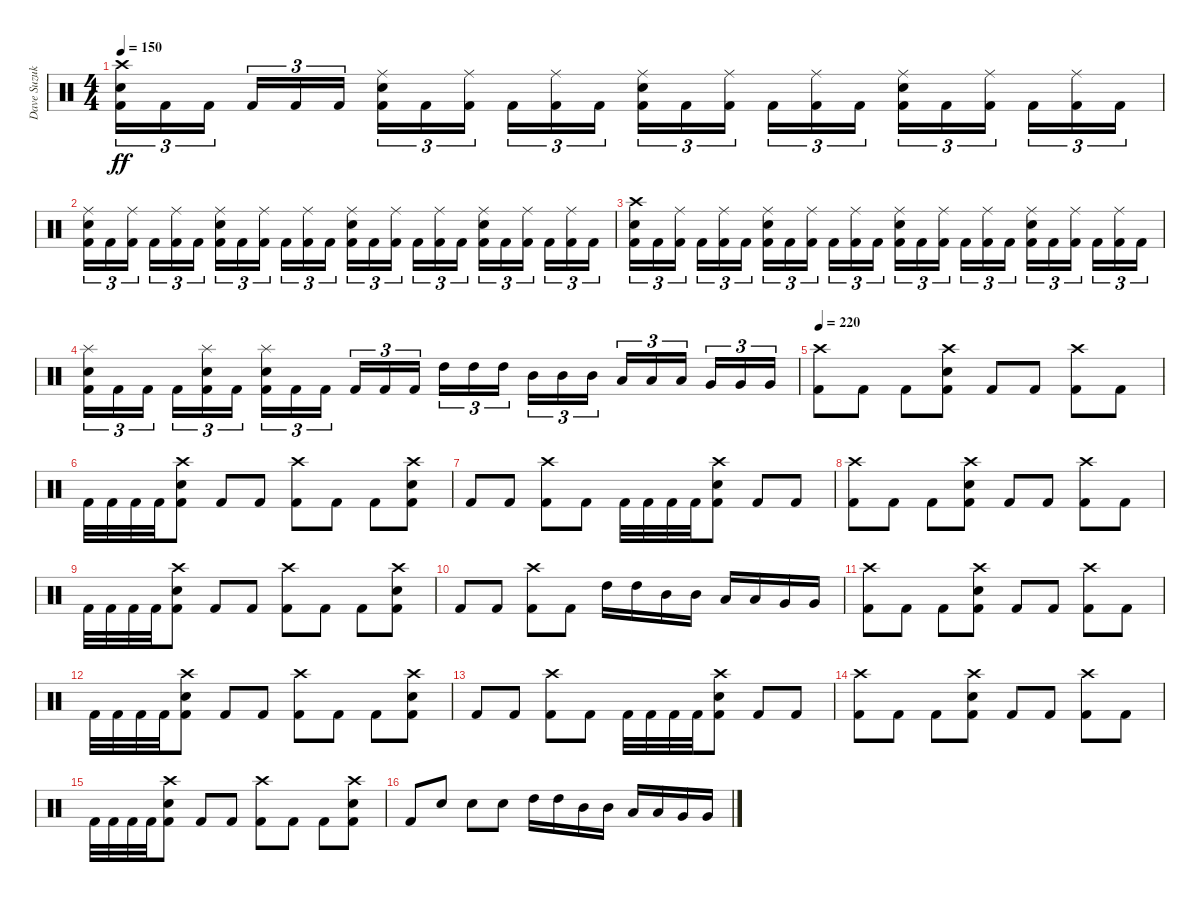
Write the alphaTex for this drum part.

\track ("Dave Suzuki - Drums" "Dave Suzuk") {instrument percussion}
\staff {score}
\articulation defaults
\ts (4 4)
\tempo 150
\clef neutral
\ks c
("Crash high (hit)" "Electric Snare (hit)" "Kick (hit) 2").16{tu (3 2) dy ff} "Kick (hit) 2".16{tu (3 2)} "Kick (hit) 2".16{tu (3 2) beam splitsecondary} "Kick (hit) 2".16{tu (3 2)} "Kick (hit) 2".16{tu (3 2)} "Kick (hit) 2".16{tu (3 2)} ("Ride (middle)" "Electric Snare (hit)" "Kick (hit) 2").16{tu (3 2)} "Kick (hit) 2".16{tu (3 2)} ("Ride (middle)" "Kick (hit) 2").16{tu (3 2) beam splitsecondary} "Kick (hit) 2".16{tu (3 2)} ("Ride (middle)" "Kick (hit) 2").16{tu (3 2)} "Kick (hit) 2".16{tu (3 2)} ("Ride (middle)" "Electric Snare (hit)" "Kick (hit) 2").16{tu (3 2)} "Kick (hit) 2".16{tu (3 2)} ("Ride (middle)" "Kick (hit) 2").16{tu (3 2) beam splitsecondary} "Kick (hit) 2".16{tu (3 2)} ("Ride (middle)" "Kick (hit) 2").16{tu (3 2)} "Kick (hit) 2".16{tu (3 2)} ("Ride (middle)" "Electric Snare (hit)" "Kick (hit) 2").16{tu (3 2)} "Kick (hit) 2".16{tu (3 2)} ("Ride (middle)" "Kick (hit) 2").16{tu (3 2) beam splitsecondary} "Kick (hit) 2".16{tu (3 2)} ("Ride (middle)" "Kick (hit) 2").16{tu (3 2)} "Kick (hit) 2".16{tu (3 2)} |
("Ride (middle)" "Electric Snare (hit)" "Kick (hit) 2").16{tu (3 2)} "Kick (hit) 2".16{tu (3 2)} ("Ride (middle)" "Kick (hit) 2").16{tu (3 2) beam splitsecondary} "Kick (hit) 2".16{tu (3 2)} ("Ride (middle)" "Kick (hit) 2").16{tu (3 2)} "Kick (hit) 2".16{tu (3 2)} ("Ride (middle)" "Electric Snare (hit)" "Kick (hit) 2").16{tu (3 2)} "Kick (hit) 2".16{tu (3 2)} ("Ride (middle)" "Kick (hit) 2").16{tu (3 2) beam splitsecondary} "Kick (hit) 2".16{tu (3 2)} ("Ride (middle)" "Kick (hit) 2").16{tu (3 2)} "Kick (hit) 2".16{tu (3 2)} ("Ride (middle)" "Electric Snare (hit)" "Kick (hit) 2").16{tu (3 2)} "Kick (hit) 2".16{tu (3 2)} ("Ride (middle)" "Kick (hit) 2").16{tu (3 2) beam splitsecondary} "Kick (hit) 2".16{tu (3 2)} ("Ride (middle)" "Kick (hit) 2").16{tu (3 2)} "Kick (hit) 2".16{tu (3 2)} ("Ride (middle)" "Electric Snare (hit)" "Kick (hit) 2").16{tu (3 2)} "Kick (hit) 2".16{tu (3 2)} ("Ride (middle)" "Kick (hit) 2").16{tu (3 2) beam splitsecondary} "Kick (hit) 2".16{tu (3 2)} ("Ride (middle)" "Kick (hit) 2").16{tu (3 2)} "Kick (hit) 2".16{tu (3 2)} |
("Crash high (hit)" "Electric Snare (hit)" "Kick (hit) 2").16{tu (3 2)} "Kick (hit) 2".16{tu (3 2)} ("Ride (middle)" "Kick (hit) 2").16{tu (3 2) beam splitsecondary} "Kick (hit) 2".16{tu (3 2)} ("Ride (middle)" "Kick (hit) 2").16{tu (3 2)} "Kick (hit) 2".16{tu (3 2)} ("Ride (middle)" "Electric Snare (hit)" "Kick (hit) 2").16{tu (3 2)} "Kick (hit) 2".16{tu (3 2)} ("Ride (middle)" "Kick (hit) 2").16{tu (3 2) beam splitsecondary} "Kick (hit) 2".16{tu (3 2)} ("Ride (middle)" "Kick (hit) 2").16{tu (3 2)} "Kick (hit) 2".16{tu (3 2)} ("Ride (middle)" "Electric Snare (hit)" "Kick (hit) 2").16{tu (3 2)} "Kick (hit) 2".16{tu (3 2)} ("Ride (middle)" "Kick (hit) 2").16{tu (3 2) beam splitsecondary} "Kick (hit) 2".16{tu (3 2)} ("Ride (middle)" "Kick (hit) 2").16{tu (3 2)} "Kick (hit) 2".16{tu (3 2)} ("Ride (middle)" "Electric Snare (hit)" "Kick (hit) 2").16{tu (3 2)} "Kick (hit) 2".16{tu (3 2)} ("Ride (middle)" "Kick (hit) 2").16{tu (3 2) beam splitsecondary} "Kick (hit) 2".16{tu (3 2)} ("Ride (middle)" "Kick (hit) 2").16{tu (3 2)} "Kick (hit) 2".16{tu (3 2)} |
("Splash (hit)" "Electric Snare (hit)" "Kick (hit) 2").16{tu (3 2)} "Kick (hit) 2".16{tu (3 2)} "Kick (hit) 2".16{tu (3 2) beam splitsecondary} "Kick (hit) 2".16{tu (3 2)} ("Splash (hit)" "Electric Snare (hit)" "Kick (hit) 2").16{tu (3 2)} "Kick (hit) 2".16{tu (3 2)} ("Splash (hit)" "Electric Snare (hit)" "Kick (hit) 2").16{tu (3 2)} "Kick (hit) 2".16{tu (3 2)} "Kick (hit) 2".16{tu (3 2) beam splitsecondary} "Kick (hit) 2".16{tu (3 2)} "Kick (hit) 2".16{tu (3 2)} "Kick (hit) 2".16{tu (3 2)} "High Tom (hit)".16{tu (3 2)} "High Tom (hit)".16{tu (3 2)} "High Tom (hit)".16{tu (3 2) beam splitsecondary} "Mid Tom (hit)".16{tu (3 2)} "Mid Tom (hit)".16{tu (3 2)} "Mid Tom (hit)".16{tu (3 2)} "Low Tom (hit)".16{tu (3 2)} "Low Tom (hit)".16{tu (3 2)} "Low Tom (hit)".16{tu (3 2) beam splitsecondary} "Very Low Tom (hit)".16{tu (3 2)} "Very Low Tom (hit)".16{tu (3 2)} "Very Low Tom (hit)".16{tu (3 2)} |
\tempo 220
("Crash high (hit)" "Kick (hit) 2").8 "Kick (hit) 2".8 "Kick (hit) 2".8 ("Crash high (hit)" "Electric Snare (hit)" "Kick (hit) 2").8 "Kick (hit) 2".8 "Kick (hit) 2".8 ("Crash high (hit)" "Kick (hit) 2").8 "Kick (hit) 2".8 |
"Kick (hit) 2".32 "Kick (hit) 2".32 "Kick (hit) 2".32 "Kick (hit) 2".32 ("Crash high (hit)" "Electric Snare (hit)" "Kick (hit) 2").8 "Kick (hit) 2".8 "Kick (hit) 2".8 ("Crash high (hit)" "Kick (hit) 2").8 "Kick (hit) 2".8 "Kick (hit) 2".8 ("Crash high (hit)" "Electric Snare (hit)" "Kick (hit) 2").8 |
"Kick (hit) 2".8 "Kick (hit) 2".8 ("Crash high (hit)" "Kick (hit) 2").8 "Kick (hit) 2".8 "Kick (hit) 2".32 "Kick (hit) 2".32 "Kick (hit) 2".32 "Kick (hit) 2".32 ("Crash high (hit)" "Electric Snare (hit)" "Kick (hit) 2").8 "Kick (hit) 2".8 "Kick (hit) 2".8 |
("Crash high (hit)" "Kick (hit) 2").8 "Kick (hit) 2".8 "Kick (hit) 2".8 ("Crash high (hit)" "Electric Snare (hit)" "Kick (hit) 2").8 "Kick (hit) 2".8 "Kick (hit) 2".8 ("Crash high (hit)" "Kick (hit) 2").8 "Kick (hit) 2".8 |
"Kick (hit) 2".32 "Kick (hit) 2".32 "Kick (hit) 2".32 "Kick (hit) 2".32 ("Crash high (hit)" "Electric Snare (hit)" "Kick (hit) 2").8 "Kick (hit) 2".8 "Kick (hit) 2".8 ("Crash high (hit)" "Kick (hit) 2").8 "Kick (hit) 2".8 "Kick (hit) 2".8 ("Crash high (hit)" "Electric Snare (hit)" "Kick (hit) 2").8 |
"Kick (hit) 2".8 "Kick (hit) 2".8 ("Crash high (hit)" "Kick (hit) 2").8 "Kick (hit) 2".8 "High Tom (hit)".16 "High Tom (hit)".16 "Mid Tom (hit)".16 "Mid Tom (hit)".16 "Low Tom (hit)".16 "Low Tom (hit)".16 "Very Low Tom (hit)".16 "Very Low Tom (hit)".16 |
("Crash high (hit)" "Kick (hit) 2").8 "Kick (hit) 2".8 "Kick (hit) 2".8 ("Crash high (hit)" "Electric Snare (hit)" "Kick (hit) 2").8 "Kick (hit) 2".8 "Kick (hit) 2".8 ("Crash high (hit)" "Kick (hit) 2").8 "Kick (hit) 2".8 |
"Kick (hit) 2".32 "Kick (hit) 2".32 "Kick (hit) 2".32 "Kick (hit) 2".32 ("Crash high (hit)" "Electric Snare (hit)" "Kick (hit) 2").8 "Kick (hit) 2".8 "Kick (hit) 2".8 ("Crash high (hit)" "Kick (hit) 2").8 "Kick (hit) 2".8 "Kick (hit) 2".8 ("Crash high (hit)" "Electric Snare (hit)" "Kick (hit) 2").8 |
"Kick (hit) 2".8 "Kick (hit) 2".8 ("Crash high (hit)" "Kick (hit) 2").8 "Kick (hit) 2".8 "Kick (hit) 2".32 "Kick (hit) 2".32 "Kick (hit) 2".32 "Kick (hit) 2".32 ("Crash high (hit)" "Electric Snare (hit)" "Kick (hit) 2").8 "Kick (hit) 2".8 "Kick (hit) 2".8 |
("Crash high (hit)" "Kick (hit) 2").8 "Kick (hit) 2".8 "Kick (hit) 2".8 ("Crash high (hit)" "Electric Snare (hit)" "Kick (hit) 2").8 "Kick (hit) 2".8 "Kick (hit) 2".8 ("Crash high (hit)" "Kick (hit) 2").8 "Kick (hit) 2".8 |
"Kick (hit) 2".32 "Kick (hit) 2".32 "Kick (hit) 2".32 "Kick (hit) 2".32 ("Crash high (hit)" "Electric Snare (hit)" "Kick (hit) 2").8 "Kick (hit) 2".8 "Kick (hit) 2".8 ("Crash high (hit)" "Kick (hit) 2").8 "Kick (hit) 2".8 "Kick (hit) 2".8 ("Crash high (hit)" "Electric Snare (hit)" "Kick (hit) 2").8 |
"Kick (hit) 2".8 "Electric Snare (hit)".8 "Electric Snare (hit)".8 "Electric Snare (hit)".8 "High Tom (hit)".16 "High Tom (hit)".16 "Mid Tom (hit)".16 "Mid Tom (hit)".16 "Low Tom (hit)".16 "Low Tom (hit)".16 "Very Low Tom (hit)".16 "Very Low Tom (hit)".16
